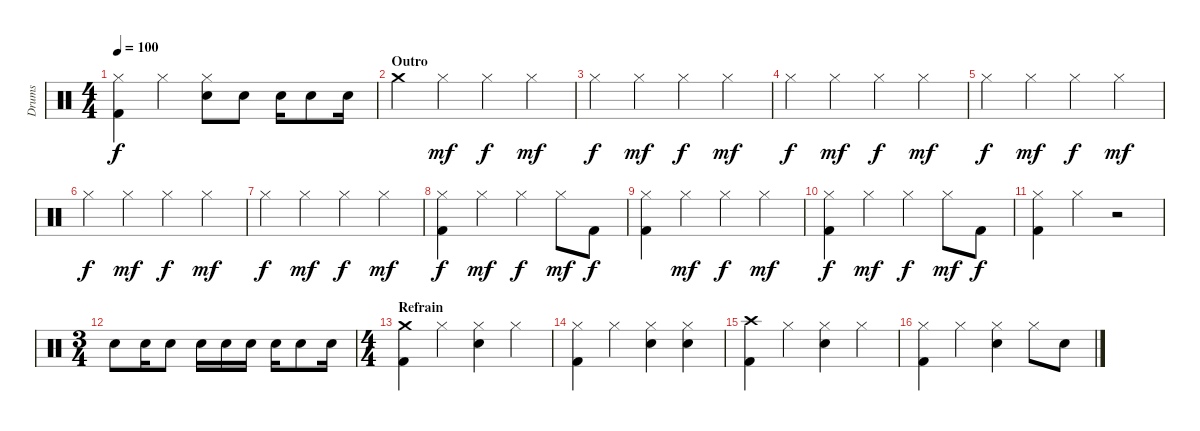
\track ("Drums" "Drums") {instrument percussion}
\staff {score}
\articulation defaults
\ts (4 4)
\tempo 100
\clef neutral
\ks c
("Hi-Hat (closed)" "Kick (hit) 2").4{dy f} "Hi-Hat (closed)".4 ("Hi-Hat (closed)" "Snare (hit) 2").8 "Snare (hit) 2".8 "Snare (hit) 2".16 "Snare (hit) 2".8 "Snare (hit) 2".16 |
\section ("" "Outro")
"Crash medium (hit)".4 "Hi-Hat (closed)".4{dy mf} "Hi-Hat (closed)".4{dy f} "Hi-Hat (closed)".4{dy mf} |
"Hi-Hat (closed)".4{dy f} "Hi-Hat (closed)".4{dy mf} "Hi-Hat (closed)".4{dy f} "Hi-Hat (closed)".4{dy mf} |
"Hi-Hat (closed)".4{dy f} "Hi-Hat (closed)".4{dy mf} "Hi-Hat (closed)".4{dy f} "Hi-Hat (closed)".4{dy mf} |
"Hi-Hat (closed)".4{dy f} "Hi-Hat (closed)".4{dy mf} "Hi-Hat (closed)".4{dy f} "Hi-Hat (closed)".4{dy mf} |
"Hi-Hat (closed)".4{dy f} "Hi-Hat (closed)".4{dy mf} "Hi-Hat (closed)".4{dy f} "Hi-Hat (closed)".4{dy mf} |
"Hi-Hat (closed)".4{dy f} "Hi-Hat (closed)".4{dy mf} "Hi-Hat (closed)".4{dy f} "Hi-Hat (closed)".4{dy mf} |
("Hi-Hat (closed)" "Kick (hit) 2").4{dy f} "Hi-Hat (closed)".4{dy mf} "Hi-Hat (closed)".4{dy f} "Hi-Hat (closed)".8{dy mf} "Kick (hit) 2".8{dy f} |
("Hi-Hat (closed)" "Kick (hit) 2").4 "Hi-Hat (closed)".4{dy mf} "Hi-Hat (closed)".4{dy f} "Hi-Hat (closed)".4{dy mf} |
("Hi-Hat (closed)" "Kick (hit) 2").4{dy f} "Hi-Hat (closed)".4{dy mf} "Hi-Hat (closed)".4{dy f} "Hi-Hat (closed)".8{dy mf} "Kick (hit) 2".8{dy f} |
("Hi-Hat (closed)" "Kick (hit) 2").4 "Hi-Hat (closed)".4 r.2 |
\ts (3 4)
"Snare (hit) 2".8 "Snare (hit) 2".16 "Snare (hit) 2".8 "Snare (hit) 2".16 "Snare (hit) 2".16 "Snare (hit) 2".16 "Snare (hit) 2".16 "Snare (hit) 2".8 "Snare (hit) 2".16 |
\ts (4 4)
\section ("" "Refrain")
("Crash medium (hit)" "Kick (hit) 2").4 "Hi-Hat (closed)".4 ("Hi-Hat (closed)" "Snare (hit) 2").4 "Hi-Hat (closed)".4 |
("Hi-Hat (closed)" "Kick (hit) 2").4 "Hi-Hat (closed)".4 ("Hi-Hat (closed)" "Snare (hit) 2").4 ("Hi-Hat (closed)" "Snare (hit) 2").4 |
("Crash high (hit)" "Kick (hit) 2").4 "Hi-Hat (closed)".4 ("Hi-Hat (closed)" "Snare (hit) 2").4 "Hi-Hat (closed)".4 |
("Hi-Hat (closed)" "Kick (hit) 2").4 "Hi-Hat (closed)".4 ("Hi-Hat (closed)" "Snare (hit) 2").4 "Hi-Hat (closed)".8 "Snare (hit) 2".8
